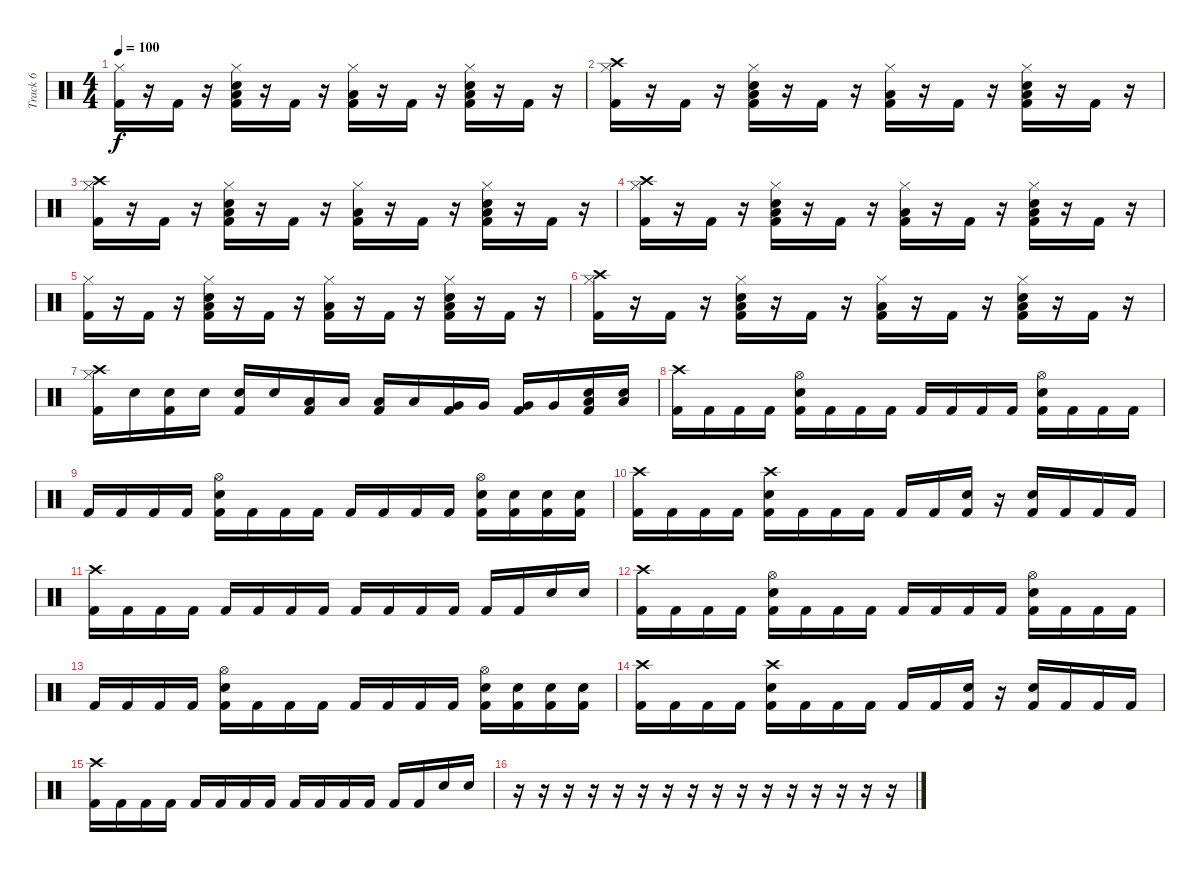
\track ("Track 6" "Track 6") {instrument percussion}
\staff {score}
\articulation defaults
\ts (4 4)
\tempo 100
\clef neutral
\ks c
("Hi-Hat (closed)" "Kick (hit) 2").16{dy f} r.16 "Kick (hit) 2".16 r.16 ("Hi-Hat (closed)" "Kick (hit) 2" "Low Floor Tom (hit)" "Snare (hit) 2").16 r.16 "Kick (hit) 2".16 r.16 ("Hi-Hat (closed)" "Kick (hit) 2" "Low Floor Tom (hit)").16 r.16 "Kick (hit) 2".16 r.16 ("Hi-Hat (closed)" "Kick (hit) 2" "Low Floor Tom (hit)" "Snare (hit) 2").16 r.16 "Kick (hit) 2".16 r.16 |
("Hi-Hat (closed)" "Kick (hit) 2" "Crash high (hit)").16 r.16 "Kick (hit) 2".16 r.16 ("Hi-Hat (closed)" "Kick (hit) 2" "Low Floor Tom (hit)" "Snare (hit) 2").16 r.16 "Kick (hit) 2".16 r.16 ("Hi-Hat (closed)" "Kick (hit) 2" "Low Floor Tom (hit)").16 r.16 "Kick (hit) 2".16 r.16 ("Hi-Hat (closed)" "Kick (hit) 2" "Low Floor Tom (hit)" "Snare (hit) 2").16 r.16 "Kick (hit) 2".16 r.16 |
("Hi-Hat (closed)" "Kick (hit) 2" "Crash high (hit)").16 r.16 "Kick (hit) 2".16 r.16 ("Hi-Hat (closed)" "Kick (hit) 2" "Low Floor Tom (hit)" "Snare (hit) 2").16 r.16 "Kick (hit) 2".16 r.16 ("Hi-Hat (closed)" "Kick (hit) 2" "Low Floor Tom (hit)").16 r.16 "Kick (hit) 2".16 r.16 ("Hi-Hat (closed)" "Kick (hit) 2" "Low Floor Tom (hit)" "Snare (hit) 2").16 r.16 "Kick (hit) 2".16 r.16 |
("Hi-Hat (closed)" "Kick (hit) 2" "Crash high (hit)").16 r.16 "Kick (hit) 2".16 r.16 ("Hi-Hat (closed)" "Kick (hit) 2" "Low Floor Tom (hit)" "Snare (hit) 2").16 r.16 "Kick (hit) 2".16 r.16 ("Hi-Hat (closed)" "Kick (hit) 2" "Low Floor Tom (hit)").16 r.16 "Kick (hit) 2".16 r.16 ("Hi-Hat (closed)" "Kick (hit) 2" "Low Floor Tom (hit)" "Snare (hit) 2").16 r.16 "Kick (hit) 2".16 r.16 |
("Hi-Hat (closed)" "Kick (hit) 2").16 r.16 "Kick (hit) 2".16 r.16 ("Hi-Hat (closed)" "Kick (hit) 2" "Low Floor Tom (hit)" "Snare (hit) 2").16 r.16 "Kick (hit) 2".16 r.16 ("Hi-Hat (closed)" "Kick (hit) 2" "Low Floor Tom (hit)").16 r.16 "Kick (hit) 2".16 r.16 ("Hi-Hat (closed)" "Kick (hit) 2" "Low Floor Tom (hit)" "Snare (hit) 2").16 r.16 "Kick (hit) 2".16 r.16 |
("Hi-Hat (closed)" "Kick (hit) 2" "Crash high (hit)").16 r.16 "Kick (hit) 2".16 r.16 ("Hi-Hat (closed)" "Kick (hit) 2" "Low Floor Tom (hit)" "Snare (hit) 2").16 r.16 "Kick (hit) 2".16 r.16 ("Hi-Hat (closed)" "Kick (hit) 2" "Low Floor Tom (hit)").16 r.16 "Kick (hit) 2".16 r.16 ("Hi-Hat (closed)" "Kick (hit) 2" "Low Floor Tom (hit)" "Snare (hit) 2").16 r.16 "Kick (hit) 2".16 r.16 |
("Hi-Hat (closed)" "Kick (hit) 2" "Crash high (hit)").16 "Electric Snare (hit)".16 ("Kick (hit) 2" "Electric Snare (hit)").16 "Electric Snare (hit)".16 ("Electric Snare (hit)" "Kick (hit) 2").16 "Electric Snare (hit)".16 ("Kick (hit) 2" "Low Floor Tom (hit)").16 "Low Floor Tom (hit)".16 ("Low Floor Tom (hit)" "Kick (hit) 2").16 "Low Floor Tom (hit)".16 ("Kick (hit) 2" "Very Low Tom (hit)").16 "Very Low Tom (hit)".16 ("Very Low Tom (hit)" "Kick (hit) 2").16 "Very Low Tom (hit)".16 ("Kick (hit) 2" "Low Tom (hit)" "Electric Snare (hit)").16 ("Low Tom (hit)" "Electric Snare (hit)").16 |
("Kick (hit) 2" "Crash high (hit)").16 "Kick (hit) 2".16 "Kick (hit) 2".16 "Kick (hit) 2".16 ("Kick (hit) 2" "Snare (hit) 2" "Hi-Hat (open)").16 "Kick (hit) 2".16 "Kick (hit) 2".16 "Kick (hit) 2".16 "Kick (hit) 2".16 "Kick (hit) 2".16 "Kick (hit) 2".16 "Kick (hit) 2".16 ("Kick (hit) 2" "Snare (hit) 2" "Hi-Hat (open)").16 "Kick (hit) 2".16 "Kick (hit) 2".16 "Kick (hit) 2".16 |
"Kick (hit) 2".16 "Kick (hit) 2".16 "Kick (hit) 2".16 "Kick (hit) 2".16 ("Kick (hit) 2" "Snare (hit) 2" "Hi-Hat (open)").16 "Kick (hit) 2".16 "Kick (hit) 2".16 "Kick (hit) 2".16 "Kick (hit) 2".16 "Kick (hit) 2".16 "Kick (hit) 2".16 "Kick (hit) 2".16 ("Kick (hit) 2" "Snare (hit) 2" "Hi-Hat (open)").16 ("Kick (hit) 2" "Snare (hit) 2").16 ("Kick (hit) 2" "Snare (hit) 2").16 ("Kick (hit) 2" "Snare (hit) 2").16 |
("Kick (hit) 2" "Crash high (hit)").16 "Kick (hit) 2".16 "Kick (hit) 2".16 "Kick (hit) 2".16 ("Kick (hit) 2" "Crash high (hit)" "Snare (hit) 2").16 "Kick (hit) 2".16 "Kick (hit) 2".16 "Kick (hit) 2".16 "Kick (hit) 2".16 "Kick (hit) 2".16 ("Snare (hit) 2" "Kick (hit) 2").16 r.16 ("Snare (hit) 2" "Kick (hit) 2").16 "Kick (hit) 2".16 "Kick (hit) 2".16 "Kick (hit) 2".16 |
("Crash high (hit)" "Kick (hit) 2").16 "Kick (hit) 2".16 "Kick (hit) 2".16 "Kick (hit) 2".16 "Kick (hit) 2".16 "Kick (hit) 2".16 "Kick (hit) 2".16 "Kick (hit) 2".16 "Kick (hit) 2".16 "Kick (hit) 2".16 "Kick (hit) 2".16 "Kick (hit) 2".16 "Kick (hit) 2".16 "Kick (hit) 2".16 "Snare (hit) 2".16 "Snare (hit) 2".16 |
("Kick (hit) 2" "Crash high (hit)").16 "Kick (hit) 2".16 "Kick (hit) 2".16 "Kick (hit) 2".16 ("Kick (hit) 2" "Snare (hit) 2" "Hi-Hat (open)").16 "Kick (hit) 2".16 "Kick (hit) 2".16 "Kick (hit) 2".16 "Kick (hit) 2".16 "Kick (hit) 2".16 "Kick (hit) 2".16 "Kick (hit) 2".16 ("Kick (hit) 2" "Snare (hit) 2" "Hi-Hat (open)").16 "Kick (hit) 2".16 "Kick (hit) 2".16 "Kick (hit) 2".16 |
"Kick (hit) 2".16 "Kick (hit) 2".16 "Kick (hit) 2".16 "Kick (hit) 2".16 ("Kick (hit) 2" "Snare (hit) 2" "Hi-Hat (open)").16 "Kick (hit) 2".16 "Kick (hit) 2".16 "Kick (hit) 2".16 "Kick (hit) 2".16 "Kick (hit) 2".16 "Kick (hit) 2".16 "Kick (hit) 2".16 ("Kick (hit) 2" "Snare (hit) 2" "Hi-Hat (open)").16 ("Kick (hit) 2" "Snare (hit) 2").16 ("Kick (hit) 2" "Snare (hit) 2").16 ("Kick (hit) 2" "Snare (hit) 2").16 |
("Kick (hit) 2" "Crash high (hit)").16 "Kick (hit) 2".16 "Kick (hit) 2".16 "Kick (hit) 2".16 ("Kick (hit) 2" "Crash high (hit)" "Snare (hit) 2").16 "Kick (hit) 2".16 "Kick (hit) 2".16 "Kick (hit) 2".16 "Kick (hit) 2".16 "Kick (hit) 2".16 ("Snare (hit) 2" "Kick (hit) 2").16 r.16 ("Snare (hit) 2" "Kick (hit) 2").16 "Kick (hit) 2".16 "Kick (hit) 2".16 "Kick (hit) 2".16 |
("Crash high (hit)" "Kick (hit) 2").16 "Kick (hit) 2".16 "Kick (hit) 2".16 "Kick (hit) 2".16 "Kick (hit) 2".16 "Kick (hit) 2".16 "Kick (hit) 2".16 "Kick (hit) 2".16 "Kick (hit) 2".16 "Kick (hit) 2".16 "Kick (hit) 2".16 "Kick (hit) 2".16 "Kick (hit) 2".16 "Kick (hit) 2".16 "Snare (hit) 2".16 "Snare (hit) 2".16 |
r.16 r.16 r.16 r.16 r.16 r.16 r.16 r.16 r.16 r.16 r.16 r.16 r.16 r.16 r.16 r.16
